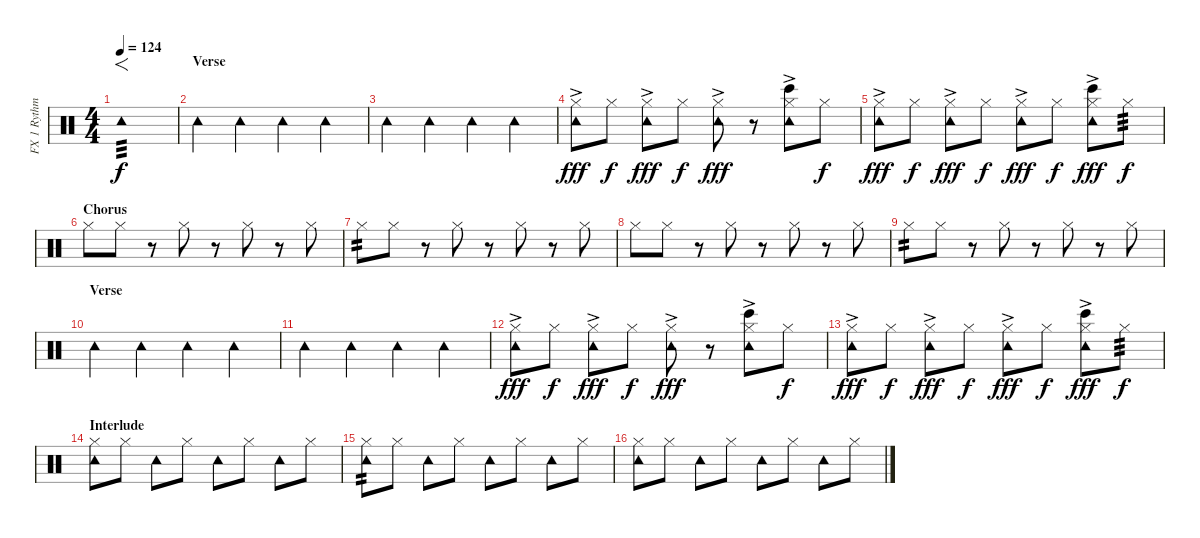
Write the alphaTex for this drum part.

\track ("FX 1 Rythm" "FX 1 Rythm") {instrument percussion}
\staff {score}
\articulation defaults
\ts (4 4)
\tempo 124
\clef neutral
\ks c "Tambourine (hit)".1{f tp 3 dy f balance 11}
|
\section ("" "Verse")
"Tambourine (hit)".4 "Tambourine (hit)".4 "Tambourine (hit)".4 "Tambourine (hit)".4 |
"Tambourine (hit)".4 "Tambourine (hit)".4 "Tambourine (hit)".4 "Tambourine (hit)".4 |
("Tambourine (hit)" "Hi-Hat (closed)"{ac}).8{dy fff} "Hi-Hat (closed)".8{dy f} ("Tambourine (hit)" "Hi-Hat (closed)"{ac}).8{dy fff} "Hi-Hat (closed)".8{dy f} ("Tambourine (hit)" "Hi-Hat (closed)"{ac}).8{dy fff} r.8 ("Tambourine (hit)" "Hi-Hat (closed)"{ac} "Bongo High (hit)").8 "Hi-Hat (closed)".8{dy f} |
("Tambourine (hit)" "Hi-Hat (closed)"{ac}).8{dy fff} "Hi-Hat (closed)".8{dy f} ("Tambourine (hit)" "Hi-Hat (closed)"{ac}).8{dy fff} "Hi-Hat (closed)".8{dy f} ("Tambourine (hit)" "Hi-Hat (closed)"{ac}).8{dy fff} "Hi-Hat (closed)".8{dy f} ("Tambourine (hit)" "Hi-Hat (closed)"{ac} "Bongo High (hit)").8{dy fff} "Hi-Hat (closed)".8{tp 3 dy f} |
\section ("" "Chorus")
"Hi-Hat (closed)".8 "Hi-Hat (closed)".8 r.8 "Hi-Hat (closed)".8 r.8 "Hi-Hat (closed)".8 r.8 "Hi-Hat (closed)".8 |
"Hi-Hat (closed)".8{tp 2} "Hi-Hat (closed)".8 r.8 "Hi-Hat (closed)".8 r.8 "Hi-Hat (closed)".8 r.8 "Hi-Hat (closed)".8 |
"Hi-Hat (closed)".8 "Hi-Hat (closed)".8 r.8 "Hi-Hat (closed)".8 r.8 "Hi-Hat (closed)".8 r.8 "Hi-Hat (closed)".8 |
"Hi-Hat (closed)".8{tp 2} "Hi-Hat (closed)".8 r.8 "Hi-Hat (closed)".8 r.8 "Hi-Hat (closed)".8 r.8 "Hi-Hat (closed)".8 |
\section ("" "Verse")
"Tambourine (hit)".4 "Tambourine (hit)".4 "Tambourine (hit)".4 "Tambourine (hit)".4 |
"Tambourine (hit)".4 "Tambourine (hit)".4 "Tambourine (hit)".4 "Tambourine (hit)".4 |
("Tambourine (hit)" "Hi-Hat (closed)"{ac}).8{dy fff} "Hi-Hat (closed)".8{dy f} ("Tambourine (hit)" "Hi-Hat (closed)"{ac}).8{dy fff} "Hi-Hat (closed)".8{dy f} ("Tambourine (hit)" "Hi-Hat (closed)"{ac}).8{dy fff} r.8 ("Tambourine (hit)" "Hi-Hat (closed)"{ac} "Bongo High (hit)").8 "Hi-Hat (closed)".8{dy f} |
("Tambourine (hit)" "Hi-Hat (closed)"{ac}).8{dy fff} "Hi-Hat (closed)".8{dy f} ("Tambourine (hit)" "Hi-Hat (closed)"{ac}).8{dy fff} "Hi-Hat (closed)".8{dy f} ("Tambourine (hit)" "Hi-Hat (closed)"{ac}).8{dy fff} "Hi-Hat (closed)".8{dy f} ("Tambourine (hit)" "Hi-Hat (closed)"{ac} "Bongo High (hit)").8{dy fff} "Hi-Hat (closed)".8{tp 3 dy f} |
\section ("" "Interlude")
("Tambourine (hit)" "Hi-Hat (closed)").8 "Hi-Hat (closed)".8 "Tambourine (hit)".8 "Hi-Hat (closed)".8 "Tambourine (hit)".8 "Hi-Hat (closed)".8 "Tambourine (hit)".8 "Hi-Hat (closed)".8 |
("Tambourine (hit)" "Hi-Hat (closed)").8{tp 2} "Hi-Hat (closed)".8 "Tambourine (hit)".8 "Hi-Hat (closed)".8 "Tambourine (hit)".8 "Hi-Hat (closed)".8 "Tambourine (hit)".8 "Hi-Hat (closed)".8 |
("Tambourine (hit)" "Hi-Hat (closed)").8 "Hi-Hat (closed)".8 "Tambourine (hit)".8 "Hi-Hat (closed)".8 "Tambourine (hit)".8 "Hi-Hat (closed)".8 "Tambourine (hit)".8 "Hi-Hat (closed)".8
